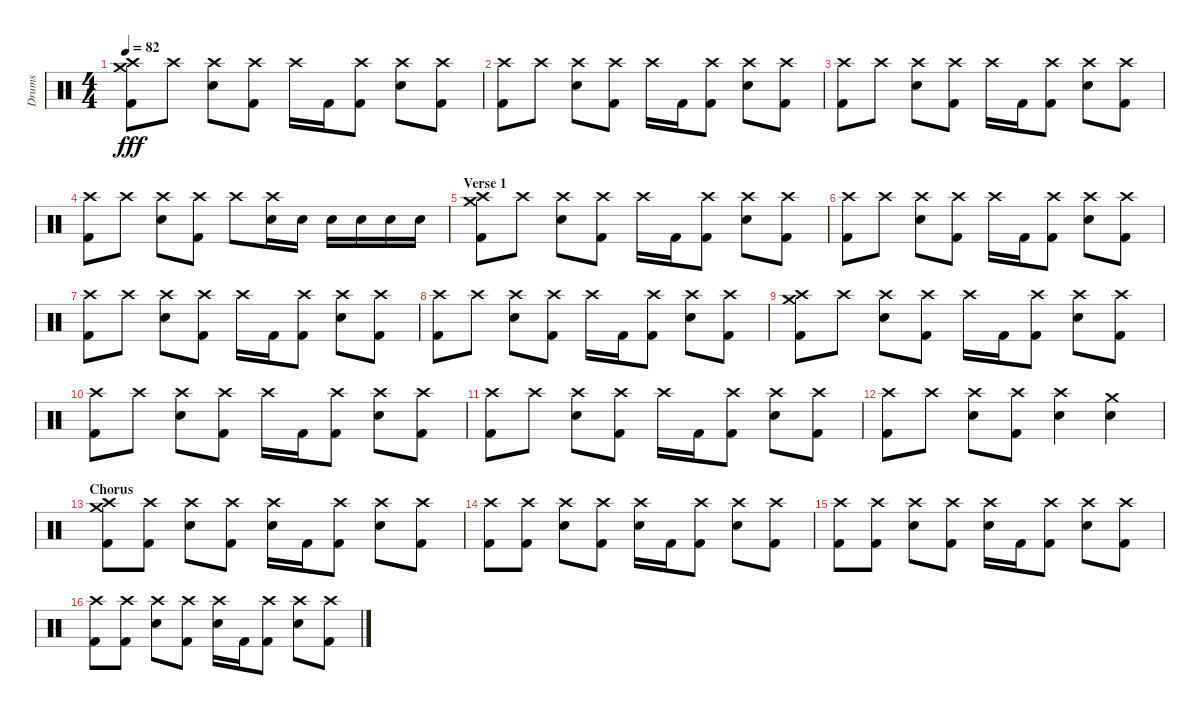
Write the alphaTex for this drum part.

\track ("Drums" "Drums") {instrument percussion}
\staff {score}
\articulation defaults
\ts (4 4)
\tempo 82
\clef neutral
\ks c
("Crash high (hit)" "Crash medium (hit)" "Kick (hit) 2").8{dy fff} "Crash high (hit)".8 ("Crash high (hit)" "Electric Snare (hit)").8 ("Crash high (hit)" "Kick (hit) 2").8 "Crash high (hit)".16 "Kick (hit) 2".16 ("Crash high (hit)" "Kick (hit) 2").8 ("Crash high (hit)" "Electric Snare (hit)").8 ("Crash high (hit)" "Kick (hit) 2").8 |
("Crash high (hit)" "Kick (hit) 2").8 "Crash high (hit)".8 ("Crash high (hit)" "Electric Snare (hit)").8 ("Crash high (hit)" "Kick (hit) 2").8 "Crash high (hit)".16 "Kick (hit) 2".16 ("Crash high (hit)" "Kick (hit) 2").8 ("Crash high (hit)" "Electric Snare (hit)").8 ("Crash high (hit)" "Kick (hit) 2").8 |
("Crash high (hit)" "Kick (hit) 2").8 "Crash high (hit)".8 ("Crash high (hit)" "Electric Snare (hit)").8 ("Crash high (hit)" "Kick (hit) 2").8 "Crash high (hit)".16 "Kick (hit) 2".16 ("Crash high (hit)" "Kick (hit) 2").8 ("Crash high (hit)" "Electric Snare (hit)").8 ("Crash high (hit)" "Kick (hit) 2").8 |
("Crash high (hit)" "Kick (hit) 2").8 "Crash high (hit)".8 ("Crash high (hit)" "Electric Snare (hit)").8 ("Crash high (hit)" "Kick (hit) 2").8 "Crash high (hit)".8 ("Crash high (hit)" "Electric Snare (hit)").16 "Electric Snare (hit)".16 "Electric Snare (hit)".16 "Electric Snare (hit)".16 "Electric Snare (hit)".16 "Electric Snare (hit)".16 |
\section ("" "Verse 1")
("Crash high (hit)" "Crash medium (hit)" "Kick (hit) 2").8 "Crash high (hit)".8 ("Crash high (hit)" "Electric Snare (hit)").8 ("Crash high (hit)" "Kick (hit) 2").8 "Crash high (hit)".16 "Kick (hit) 2".16 ("Crash high (hit)" "Kick (hit) 2").8 ("Crash high (hit)" "Electric Snare (hit)").8 ("Crash high (hit)" "Kick (hit) 2").8 |
("Crash high (hit)" "Kick (hit) 2").8 "Crash high (hit)".8 ("Crash high (hit)" "Electric Snare (hit)").8 ("Crash high (hit)" "Kick (hit) 2").8 "Crash high (hit)".16 "Kick (hit) 2".16 ("Crash high (hit)" "Kick (hit) 2").8 ("Crash high (hit)" "Electric Snare (hit)").8 ("Crash high (hit)" "Kick (hit) 2").8 |
("Crash high (hit)" "Kick (hit) 2").8 "Crash high (hit)".8 ("Crash high (hit)" "Electric Snare (hit)").8 ("Crash high (hit)" "Kick (hit) 2").8 "Crash high (hit)".16 "Kick (hit) 2".16 ("Crash high (hit)" "Kick (hit) 2").8 ("Crash high (hit)" "Electric Snare (hit)").8 ("Crash high (hit)" "Kick (hit) 2").8 |
("Crash high (hit)" "Kick (hit) 2").8 "Crash high (hit)".8 ("Crash high (hit)" "Electric Snare (hit)").8 ("Crash high (hit)" "Kick (hit) 2").8 "Crash high (hit)".16 "Kick (hit) 2".16 ("Crash high (hit)" "Kick (hit) 2").8 ("Crash high (hit)" "Electric Snare (hit)").8 ("Crash high (hit)" "Kick (hit) 2").8 |
("Crash high (hit)" "Crash medium (hit)" "Kick (hit) 2").8 "Crash high (hit)".8 ("Crash high (hit)" "Electric Snare (hit)").8 ("Crash high (hit)" "Kick (hit) 2").8 "Crash high (hit)".16 "Kick (hit) 2".16 ("Crash high (hit)" "Kick (hit) 2").8 ("Crash high (hit)" "Electric Snare (hit)").8 ("Crash high (hit)" "Kick (hit) 2").8 |
("Crash high (hit)" "Kick (hit) 2").8 "Crash high (hit)".8 ("Crash high (hit)" "Electric Snare (hit)").8 ("Crash high (hit)" "Kick (hit) 2").8 "Crash high (hit)".16 "Kick (hit) 2".16 ("Crash high (hit)" "Kick (hit) 2").8 ("Crash high (hit)" "Electric Snare (hit)").8 ("Crash high (hit)" "Kick (hit) 2").8 |
("Crash high (hit)" "Kick (hit) 2").8 "Crash high (hit)".8 ("Crash high (hit)" "Electric Snare (hit)").8 ("Crash high (hit)" "Kick (hit) 2").8 "Crash high (hit)".16 "Kick (hit) 2".16 ("Crash high (hit)" "Kick (hit) 2").8 ("Crash high (hit)" "Electric Snare (hit)").8 ("Crash high (hit)" "Kick (hit) 2").8 |
("Crash high (hit)" "Kick (hit) 2").8 "Crash high (hit)".8 ("Crash high (hit)" "Electric Snare (hit)").8 ("Crash high (hit)" "Kick (hit) 2").8 ("Crash high (hit)" "Electric Snare (hit)").4 ("Crash medium (hit)" "Electric Snare (hit)").4 |
\section ("" "Chorus")
("Crash high (hit)" "Crash medium (hit)" "Kick (hit) 2").8 ("Crash high (hit)" "Kick (hit) 2").8 ("Crash high (hit)" "Electric Snare (hit)").8 ("Crash high (hit)" "Kick (hit) 2").8 ("Crash high (hit)" "Electric Snare (hit)").16 "Kick (hit) 2".16 ("Crash high (hit)" "Kick (hit) 2").8 ("Crash high (hit)" "Electric Snare (hit)").8 ("Crash high (hit)" "Kick (hit) 2").8 |
("Crash high (hit)" "Kick (hit) 2").8 ("Crash high (hit)" "Kick (hit) 2").8 ("Crash high (hit)" "Electric Snare (hit)").8 ("Crash high (hit)" "Kick (hit) 2").8 ("Crash high (hit)" "Electric Snare (hit)").16 "Kick (hit) 2".16 ("Crash high (hit)" "Kick (hit) 2").8 ("Crash high (hit)" "Electric Snare (hit)").8 ("Crash high (hit)" "Kick (hit) 2").8 |
("Crash high (hit)" "Kick (hit) 2").8 ("Crash high (hit)" "Kick (hit) 2").8 ("Crash high (hit)" "Electric Snare (hit)").8 ("Crash high (hit)" "Kick (hit) 2").8 ("Crash high (hit)" "Electric Snare (hit)").16 "Kick (hit) 2".16 ("Crash high (hit)" "Kick (hit) 2").8 ("Crash high (hit)" "Electric Snare (hit)").8 ("Crash high (hit)" "Kick (hit) 2").8 |
("Crash high (hit)" "Kick (hit) 2").8 ("Crash high (hit)" "Kick (hit) 2").8 ("Crash high (hit)" "Electric Snare (hit)").8 ("Crash high (hit)" "Kick (hit) 2").8 ("Crash high (hit)" "Electric Snare (hit)").16 "Kick (hit) 2".16 ("Crash high (hit)" "Kick (hit) 2").8 ("Crash high (hit)" "Electric Snare (hit)").8 ("Crash high (hit)" "Kick (hit) 2").8
